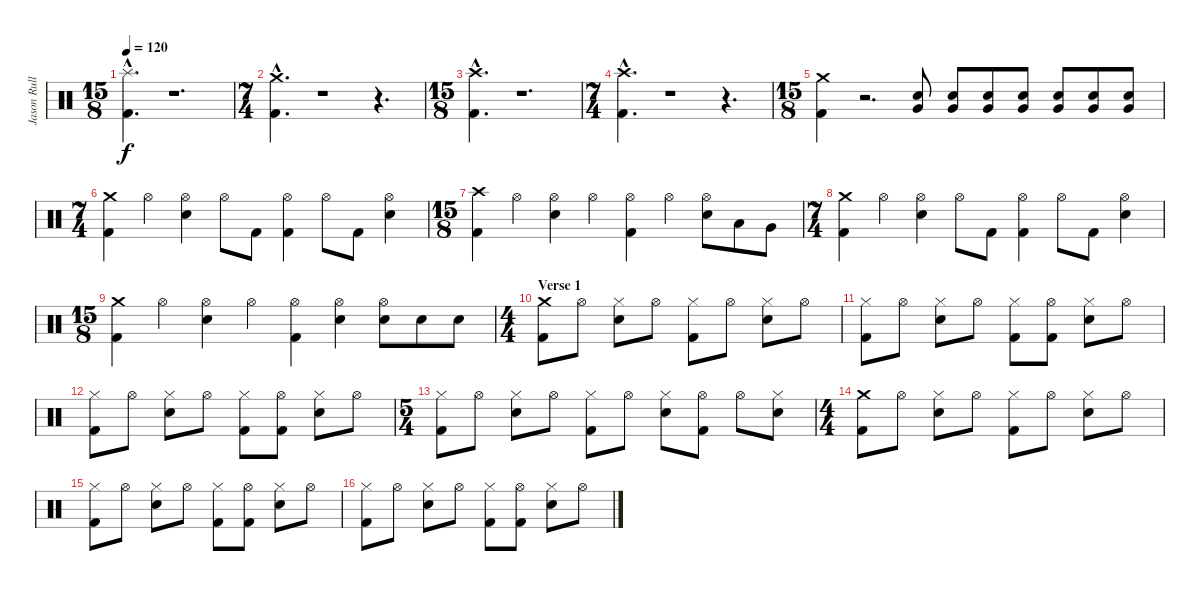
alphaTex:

\track ("Jason Rullo" "Jason Rull") {instrument percussion}
\staff {score}
\articulation defaults
\ts (15 8)
\tempo 120
\clef neutral
\ks c
("Splash (hit)"{hac} "Kick (hit) 2"{hac}).4{d dy f} r.1{d} |
\ts (7 4)
("Crash medium (hit)"{hac} "Kick (hit) 2"{hac}).4{d} r.1 r.4{d} |
\ts (15 8)
("Crash high (hit)"{hac} "Kick (hit) 2"{hac}).4{d} r.1{d} |
\ts (7 4)
("Crash high (hit)"{hac} "Kick (hit) 2"{hac}).4{d} r.1 r.4{d} |
\ts (15 8)
("Crash medium (hit)" "Kick (hit) 2").4 r.2{d} ("Electric Snare (hit)" "Very Low Tom (hit)").8{volume 0} ("Very Low Tom (hit)" "Electric Snare (hit)").8{volume 2} ("Very Low Tom (hit)" "Electric Snare (hit)").8{volume 4} ("Very Low Tom (hit)" "Electric Snare (hit)").8{volume 7} ("Very Low Tom (hit)" "Electric Snare (hit)").8{volume 9} ("Very Low Tom (hit)" "Electric Snare (hit)").8{volume 11} ("Very Low Tom (hit)" "Electric Snare (hit)").8{volume 14} |
\ts (7 4)
("Crash medium (hit)" "Kick (hit) 2").4{volume 16} "Hi-Hat (open)".4 ("Hi-Hat (open)" "Electric Snare (hit)").4 "Hi-Hat (open)".8 "Kick (hit) 2".8 ("Hi-Hat (open)" "Kick (hit) 2").4 "Hi-Hat (open)".8 "Kick (hit) 2".8 ("Hi-Hat (open)" "Electric Snare (hit)").4 |
\ts (15 8)
("Crash high (hit)" "Kick (hit) 2").4 "Hi-Hat (open)".4 ("Hi-Hat (open)" "Electric Snare (hit)").4 "Hi-Hat (open)".4 ("Hi-Hat (open)" "Kick (hit) 2").4 "Hi-Hat (open)".4 ("Hi-Hat (open)" "Electric Snare (hit)").8 "Low Tom (hit)".8 "Very Low Tom (hit)".8 |
\ts (7 4)
("Crash medium (hit)" "Kick (hit) 2").4 "Hi-Hat (open)".4 ("Hi-Hat (open)" "Electric Snare (hit)").4 "Hi-Hat (open)".8 "Kick (hit) 2".8 ("Hi-Hat (open)" "Kick (hit) 2").4 "Hi-Hat (open)".8 "Kick (hit) 2".8 ("Hi-Hat (open)" "Electric Snare (hit)").4 |
\ts (15 8)
("Crash medium (hit)" "Kick (hit) 2").4 "Hi-Hat (open)".4 ("Hi-Hat (open)" "Electric Snare (hit)").4 "Hi-Hat (open)".4 ("Hi-Hat (open)" "Kick (hit) 2").4 ("Electric Snare (hit)" "Hi-Hat (open)").4 ("Hi-Hat (open)" "Electric Snare (hit)").8 "Electric Snare (hit)".8 "Electric Snare (hit)".8 |
\ts (4 4)
\section ("" "Verse 1")
("Crash medium (hit)" "Kick (hit) 2").8 "Hi-Hat (open)".8 ("Electric Snare (hit)" "Hi-Hat (closed)").8 "Hi-Hat (open)".8 ("Kick (hit) 2" "Hi-Hat (closed)").8 "Hi-Hat (open)".8 ("Electric Snare (hit)" "Hi-Hat (closed)").8 "Hi-Hat (open)".8 |
("Hi-Hat (closed)" "Kick (hit) 2").8 "Hi-Hat (open)".8 ("Electric Snare (hit)" "Hi-Hat (closed)").8 "Hi-Hat (open)".8 ("Kick (hit) 2" "Hi-Hat (closed)").8 ("Kick (hit) 2" "Hi-Hat (open)").8 ("Electric Snare (hit)" "Hi-Hat (closed)").8 "Hi-Hat (open)".8 |
("Hi-Hat (closed)" "Kick (hit) 2").8 "Hi-Hat (open)".8 ("Electric Snare (hit)" "Hi-Hat (closed)").8 "Hi-Hat (open)".8 ("Kick (hit) 2" "Hi-Hat (closed)").8 ("Kick (hit) 2" "Hi-Hat (open)").8 ("Electric Snare (hit)" "Hi-Hat (closed)").8 "Hi-Hat (open)".8 |
\ts (5 4)
("Hi-Hat (closed)" "Kick (hit) 2").8 "Hi-Hat (open)".8 ("Electric Snare (hit)" "Hi-Hat (closed)").8 "Hi-Hat (open)".8 ("Kick (hit) 2" "Hi-Hat (closed)").8 "Hi-Hat (open)".8 ("Electric Snare (hit)" "Hi-Hat (closed)").8 ("Kick (hit) 2" "Hi-Hat (open)").8 "Hi-Hat (open)".8 ("Hi-Hat (closed)" "Electric Snare (hit)").8 |
\ts (4 4)
("Crash medium (hit)" "Kick (hit) 2").8 "Hi-Hat (open)".8 ("Electric Snare (hit)" "Hi-Hat (closed)").8 "Hi-Hat (open)".8 ("Kick (hit) 2" "Hi-Hat (closed)").8 "Hi-Hat (open)".8 ("Electric Snare (hit)" "Hi-Hat (closed)").8 "Hi-Hat (open)".8 |
("Hi-Hat (closed)" "Kick (hit) 2").8 "Hi-Hat (open)".8 ("Electric Snare (hit)" "Hi-Hat (closed)").8 "Hi-Hat (open)".8 ("Kick (hit) 2" "Hi-Hat (closed)").8 ("Kick (hit) 2" "Hi-Hat (open)").8 ("Electric Snare (hit)" "Hi-Hat (closed)").8 "Hi-Hat (open)".8 |
("Hi-Hat (closed)" "Kick (hit) 2").8 "Hi-Hat (open)".8 ("Electric Snare (hit)" "Hi-Hat (closed)").8 "Hi-Hat (open)".8 ("Kick (hit) 2" "Hi-Hat (closed)").8 ("Kick (hit) 2" "Hi-Hat (open)").8 ("Electric Snare (hit)" "Hi-Hat (closed)").8 "Hi-Hat (open)".8
